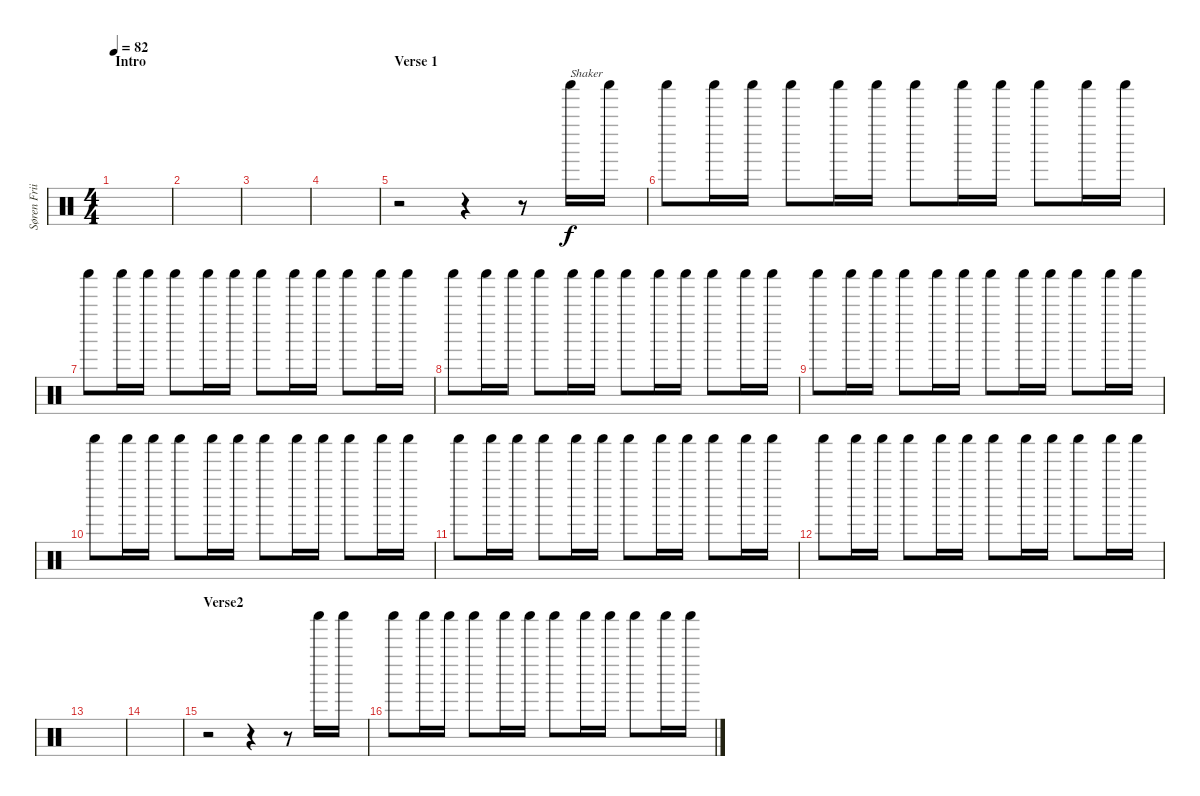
\track ("Søren Friis 2" "Søren Frii") {instrument percussion}
\staff {score}
\articulation defaults
\ts (4 4)
\section ("" "Intro")
\tempo 82
\clef neutral
\ks c
|
|
|
|
\section ("" "Verse 1")
r.2 r.4 r.8 "Shaker (hit)".16{txt "Shaker"} "Shaker (hit)".16 |
"Shaker (hit)".8 "Shaker (hit)".16 "Shaker (hit)".16 "Shaker (hit)".8 "Shaker (hit)".16 "Shaker (hit)".16 "Shaker (hit)".8 "Shaker (hit)".16 "Shaker (hit)".16 "Shaker (hit)".8 "Shaker (hit)".16 "Shaker (hit)".16 |
"Shaker (hit)".8 "Shaker (hit)".16 "Shaker (hit)".16 "Shaker (hit)".8 "Shaker (hit)".16 "Shaker (hit)".16 "Shaker (hit)".8 "Shaker (hit)".16 "Shaker (hit)".16 "Shaker (hit)".8 "Shaker (hit)".16 "Shaker (hit)".16 |
"Shaker (hit)".8 "Shaker (hit)".16 "Shaker (hit)".16 "Shaker (hit)".8 "Shaker (hit)".16 "Shaker (hit)".16 "Shaker (hit)".8 "Shaker (hit)".16 "Shaker (hit)".16 "Shaker (hit)".8 "Shaker (hit)".16 "Shaker (hit)".16 |
"Shaker (hit)".8 "Shaker (hit)".16 "Shaker (hit)".16 "Shaker (hit)".8 "Shaker (hit)".16 "Shaker (hit)".16 "Shaker (hit)".8 "Shaker (hit)".16 "Shaker (hit)".16 "Shaker (hit)".8 "Shaker (hit)".16 "Shaker (hit)".16 |
"Shaker (hit)".8 "Shaker (hit)".16 "Shaker (hit)".16 "Shaker (hit)".8 "Shaker (hit)".16 "Shaker (hit)".16 "Shaker (hit)".8 "Shaker (hit)".16 "Shaker (hit)".16 "Shaker (hit)".8 "Shaker (hit)".16 "Shaker (hit)".16 |
"Shaker (hit)".8 "Shaker (hit)".16 "Shaker (hit)".16 "Shaker (hit)".8 "Shaker (hit)".16 "Shaker (hit)".16 "Shaker (hit)".8 "Shaker (hit)".16 "Shaker (hit)".16 "Shaker (hit)".8 "Shaker (hit)".16 "Shaker (hit)".16 |
"Shaker (hit)".8 "Shaker (hit)".16 "Shaker (hit)".16 "Shaker (hit)".8 "Shaker (hit)".16 "Shaker (hit)".16 "Shaker (hit)".8 "Shaker (hit)".16 "Shaker (hit)".16 "Shaker (hit)".8 "Shaker (hit)".16 "Shaker (hit)".16 |
|
|
\section ("" "Verse2")
r.2 r.4 r.8 "Shaker (hit)".16 "Shaker (hit)".16 |
"Shaker (hit)".8 "Shaker (hit)".16 "Shaker (hit)".16 "Shaker (hit)".8 "Shaker (hit)".16 "Shaker (hit)".16 "Shaker (hit)".8 "Shaker (hit)".16 "Shaker (hit)".16 "Shaker (hit)".8 "Shaker (hit)".16 "Shaker (hit)".16
